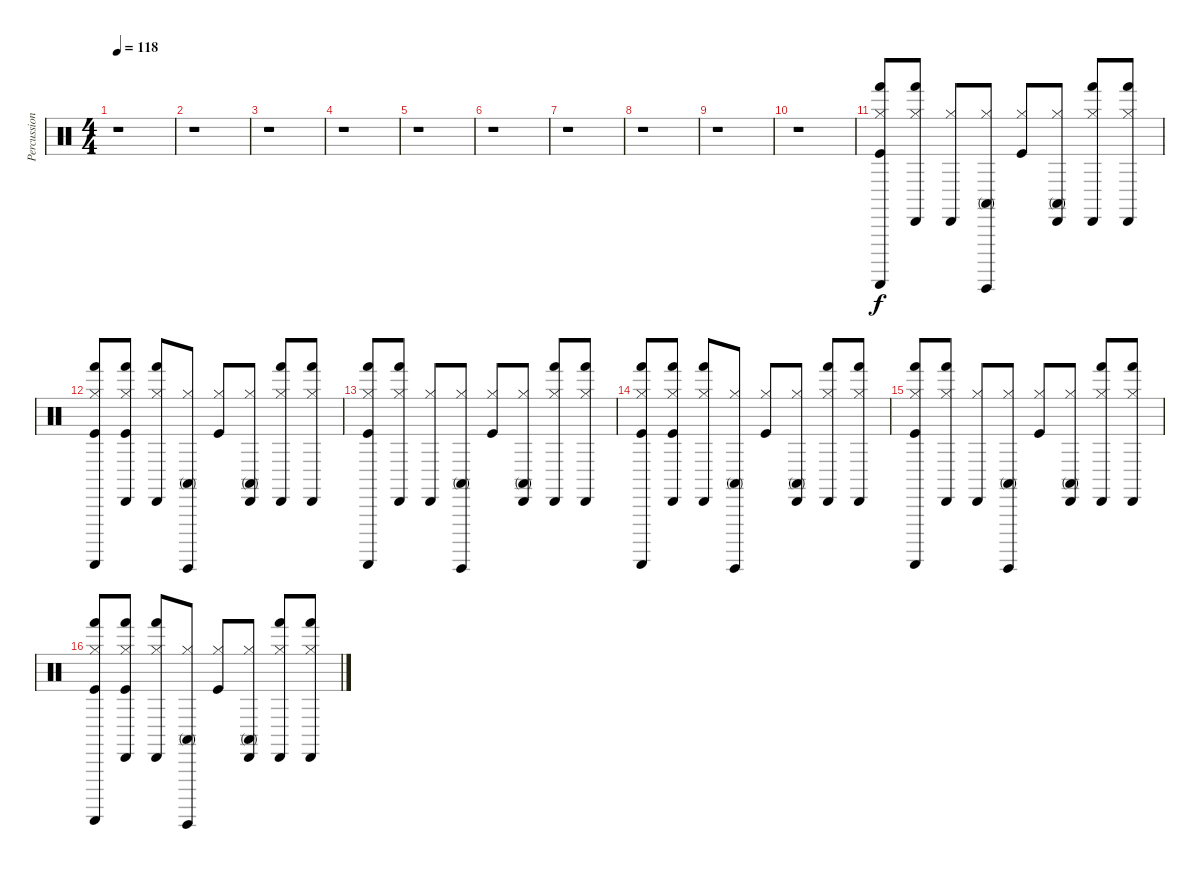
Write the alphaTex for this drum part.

\track ("Percussion" "Percussion") {instrument percussion}
\staff {score}
\articulation defaults
\ts (4 4)
\tempo 118
\clef neutral
\ks c
r.1{dy f} |
r.1 |
r.1 |
r.1 |
r.1 |
r.1 |
r.1 |
r.1 |
r.1 |
r.1 |
("Kick (hit)" "Guiro (scrap-return)" "Hand (hit)" "Hi-Hat (closed)").8 ("Cabasa (hit)" "Hand (hit)" "Hi-Hat (closed)").8 ("Cabasa (hit)" "Hi-Hat (closed)").8 ("Guiro (hit)" "Conga high (mute)" "Hi-Hat (closed)").8 ("Kick (hit)" "Hi-Hat (closed)").8 ("Cabasa (hit)" "Conga high (mute)" "Hi-Hat (closed)").8 ("Cabasa (hit)" "Hand (hit)" "Hi-Hat (closed)").8 ("Cabasa (hit)" "Hand (hit)" "Hi-Hat (closed)").8 |
("Kick (hit)" "Guiro (scrap-return)" "Hand (hit)" "Hi-Hat (closed)").8 ("Cabasa (hit)" "Kick (hit)" "Hand (hit)" "Hi-Hat (closed)").8 ("Cabasa (hit)" "Hand (hit)" "Hi-Hat (closed)").8 ("Guiro (hit)" "Conga high (mute)" "Hi-Hat (closed)").8 ("Kick (hit)" "Hi-Hat (closed)").8 ("Cabasa (hit)" "Conga high (mute)" "Hi-Hat (closed)").8 ("Cabasa (hit)" "Hand (hit)" "Hi-Hat (closed)").8 ("Cabasa (hit)" "Hand (hit)" "Hi-Hat (closed)").8 |
("Kick (hit)" "Guiro (scrap-return)" "Hand (hit)" "Hi-Hat (closed)").8 ("Cabasa (hit)" "Hand (hit)" "Hi-Hat (closed)").8 ("Cabasa (hit)" "Hi-Hat (closed)").8 ("Guiro (hit)" "Conga high (mute)" "Hi-Hat (closed)").8 ("Kick (hit)" "Hi-Hat (closed)").8 ("Cabasa (hit)" "Conga high (mute)" "Hi-Hat (closed)").8 ("Cabasa (hit)" "Hand (hit)" "Hi-Hat (closed)").8 ("Cabasa (hit)" "Hand (hit)" "Hi-Hat (closed)").8 |
("Kick (hit)" "Guiro (scrap-return)" "Hand (hit)" "Hi-Hat (closed)").8 ("Cabasa (hit)" "Kick (hit)" "Hand (hit)" "Hi-Hat (closed)").8 ("Cabasa (hit)" "Hand (hit)" "Hi-Hat (closed)").8 ("Guiro (hit)" "Conga high (mute)" "Hi-Hat (closed)").8 ("Kick (hit)" "Hi-Hat (closed)").8 ("Cabasa (hit)" "Conga high (mute)" "Hi-Hat (closed)").8 ("Cabasa (hit)" "Hand (hit)" "Hi-Hat (closed)").8 ("Cabasa (hit)" "Hand (hit)" "Hi-Hat (closed)").8 |
("Kick (hit)" "Guiro (scrap-return)" "Hand (hit)" "Hi-Hat (closed)").8 ("Cabasa (hit)" "Hand (hit)" "Hi-Hat (closed)").8 ("Cabasa (hit)" "Hi-Hat (closed)").8 ("Guiro (hit)" "Conga high (mute)" "Hi-Hat (closed)").8 ("Kick (hit)" "Hi-Hat (closed)").8 ("Cabasa (hit)" "Conga high (mute)" "Hi-Hat (closed)").8 ("Cabasa (hit)" "Hand (hit)" "Hi-Hat (closed)").8 ("Cabasa (hit)" "Hand (hit)" "Hi-Hat (closed)").8 |
("Kick (hit)" "Guiro (scrap-return)" "Hand (hit)" "Hi-Hat (closed)").8 ("Cabasa (hit)" "Kick (hit)" "Hand (hit)" "Hi-Hat (closed)").8 ("Cabasa (hit)" "Hand (hit)" "Hi-Hat (closed)").8 ("Guiro (hit)" "Conga high (mute)" "Hi-Hat (closed)").8 ("Kick (hit)" "Hi-Hat (closed)").8 ("Cabasa (hit)" "Conga high (mute)" "Hi-Hat (closed)").8 ("Cabasa (hit)" "Hand (hit)" "Hi-Hat (closed)").8 ("Cabasa (hit)" "Hand (hit)" "Hi-Hat (closed)").8
